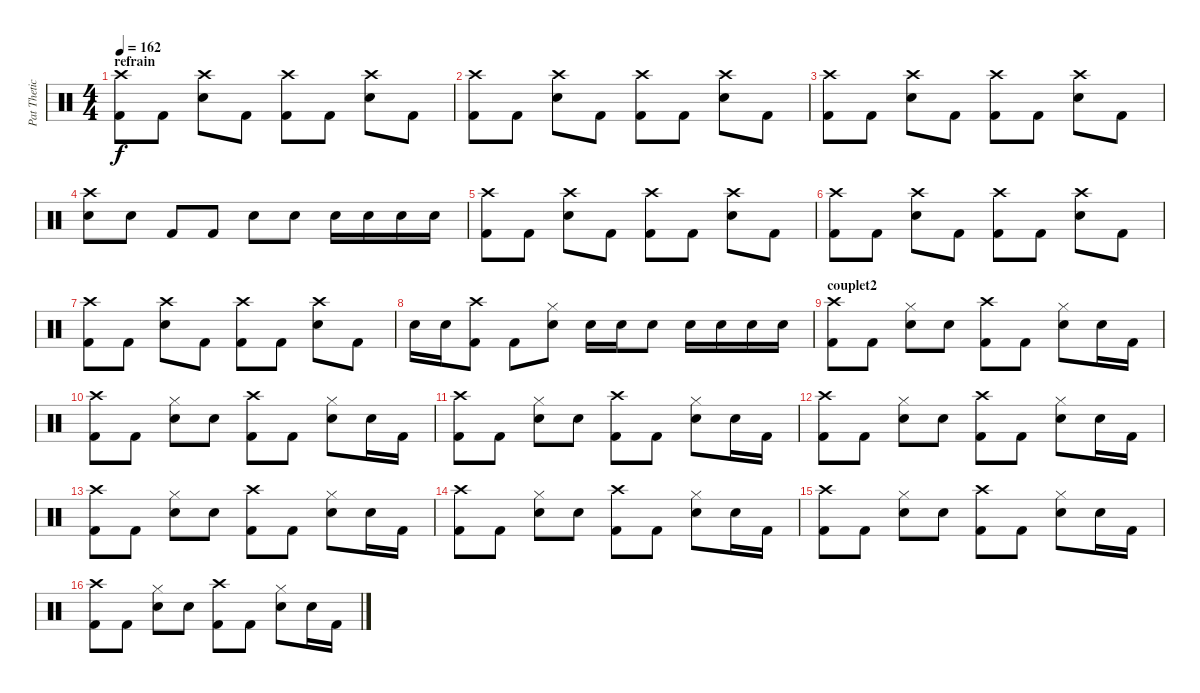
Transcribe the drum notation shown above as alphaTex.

\track ("Pat Thetic" "Pat Thetic") {instrument percussion}
\staff {score}
\articulation defaults
\ts (4 4)
\section ("" "refrain")
\tempo 162
\clef neutral
\ks c
("Crash high (hit)" "Kick (hit) 2").8{dy f} "Kick (hit) 2".8 ("Crash high (hit)" "Snare (hit) 2").8 "Kick (hit) 2".8 ("Crash high (hit)" "Kick (hit) 2").8 "Kick (hit) 2".8 ("Crash high (hit)" "Snare (hit) 2").8 "Kick (hit) 2".8 |
("Crash high (hit)" "Kick (hit) 2").8 "Kick (hit) 2".8 ("Crash high (hit)" "Snare (hit) 2").8 "Kick (hit) 2".8 ("Crash high (hit)" "Kick (hit) 2").8 "Kick (hit) 2".8 ("Crash high (hit)" "Snare (hit) 2").8 "Kick (hit) 2".8 |
("Crash high (hit)" "Kick (hit) 2").8 "Kick (hit) 2".8 ("Crash high (hit)" "Snare (hit) 2").8 "Kick (hit) 2".8 ("Crash high (hit)" "Kick (hit) 2").8 "Kick (hit) 2".8 ("Crash high (hit)" "Snare (hit) 2").8 "Kick (hit) 2".8 |
("Crash high (hit)" "Snare (hit) 2").8 "Snare (hit) 2".8 "Kick (hit) 2".8 "Kick (hit) 2".8 "Snare (hit) 2".8 "Snare (hit) 2".8 "Snare (hit) 2".16 "Snare (hit) 2".16 "Snare (hit) 2".16 "Snare (hit) 2".16 |
("Crash high (hit)" "Kick (hit) 2").8 "Kick (hit) 2".8 ("Crash high (hit)" "Snare (hit) 2").8 "Kick (hit) 2".8 ("Crash high (hit)" "Kick (hit) 2").8 "Kick (hit) 2".8 ("Crash high (hit)" "Snare (hit) 2").8 "Kick (hit) 2".8 |
("Crash high (hit)" "Kick (hit) 2").8 "Kick (hit) 2".8 ("Crash high (hit)" "Snare (hit) 2").8 "Kick (hit) 2".8 ("Crash high (hit)" "Kick (hit) 2").8 "Kick (hit) 2".8 ("Crash high (hit)" "Snare (hit) 2").8 "Kick (hit) 2".8 |
("Crash high (hit)" "Kick (hit) 2").8 "Kick (hit) 2".8 ("Crash high (hit)" "Snare (hit) 2").8 "Kick (hit) 2".8 ("Crash high (hit)" "Kick (hit) 2").8 "Kick (hit) 2".8 ("Crash high (hit)" "Snare (hit) 2").8 "Kick (hit) 2".8 |
"Snare (hit) 2".16 "Snare (hit) 2".16 ("Crash high (hit)" "Kick (hit) 2").8 "Kick (hit) 2".8 ("Hi-Hat (closed)" "Snare (hit) 2").8 "Snare (hit) 2".16 "Snare (hit) 2".16 "Snare (hit) 2".8 "Snare (hit) 2".16 "Snare (hit) 2".16 "Snare (hit) 2".16 "Snare (hit) 2".16 |
\section ("" "couplet2")
("Crash high (hit)" "Kick (hit) 2").8 "Kick (hit) 2".8 ("Hi-Hat (closed)" "Snare (hit) 2").8 "Snare (hit) 2".8 ("Crash high (hit)" "Kick (hit) 2").8 "Kick (hit) 2".8 ("Hi-Hat (closed)" "Snare (hit) 2").8 "Snare (hit) 2".16 "Kick (hit) 2".16 |
("Crash high (hit)" "Kick (hit) 2").8 "Kick (hit) 2".8 ("Hi-Hat (closed)" "Snare (hit) 2").8 "Snare (hit) 2".8 ("Crash high (hit)" "Kick (hit) 2").8 "Kick (hit) 2".8 ("Hi-Hat (closed)" "Snare (hit) 2").8 "Snare (hit) 2".16 "Kick (hit) 2".16 |
("Crash high (hit)" "Kick (hit) 2").8 "Kick (hit) 2".8 ("Hi-Hat (closed)" "Snare (hit) 2").8 "Snare (hit) 2".8 ("Crash high (hit)" "Kick (hit) 2").8 "Kick (hit) 2".8 ("Hi-Hat (closed)" "Snare (hit) 2").8 "Snare (hit) 2".16 "Kick (hit) 2".16 |
("Crash high (hit)" "Kick (hit) 2").8 "Kick (hit) 2".8 ("Hi-Hat (closed)" "Snare (hit) 2").8 "Snare (hit) 2".8 ("Crash high (hit)" "Kick (hit) 2").8 "Kick (hit) 2".8 ("Hi-Hat (closed)" "Snare (hit) 2").8 "Snare (hit) 2".16 "Kick (hit) 2".16 |
("Crash high (hit)" "Kick (hit) 2").8 "Kick (hit) 2".8 ("Hi-Hat (closed)" "Snare (hit) 2").8 "Snare (hit) 2".8 ("Crash high (hit)" "Kick (hit) 2").8 "Kick (hit) 2".8 ("Hi-Hat (closed)" "Snare (hit) 2").8 "Snare (hit) 2".16 "Kick (hit) 2".16 |
("Crash high (hit)" "Kick (hit) 2").8 "Kick (hit) 2".8 ("Hi-Hat (closed)" "Snare (hit) 2").8 "Snare (hit) 2".8 ("Crash high (hit)" "Kick (hit) 2").8 "Kick (hit) 2".8 ("Hi-Hat (closed)" "Snare (hit) 2").8 "Snare (hit) 2".16 "Kick (hit) 2".16 |
("Crash high (hit)" "Kick (hit) 2").8 "Kick (hit) 2".8 ("Hi-Hat (closed)" "Snare (hit) 2").8 "Snare (hit) 2".8 ("Crash high (hit)" "Kick (hit) 2").8 "Kick (hit) 2".8 ("Hi-Hat (closed)" "Snare (hit) 2").8 "Snare (hit) 2".16 "Kick (hit) 2".16 |
("Crash high (hit)" "Kick (hit) 2").8 "Kick (hit) 2".8 ("Hi-Hat (closed)" "Snare (hit) 2").8 "Snare (hit) 2".8 ("Crash high (hit)" "Kick (hit) 2").8 "Kick (hit) 2".8 ("Hi-Hat (closed)" "Snare (hit) 2").8 "Snare (hit) 2".16 "Kick (hit) 2".16
